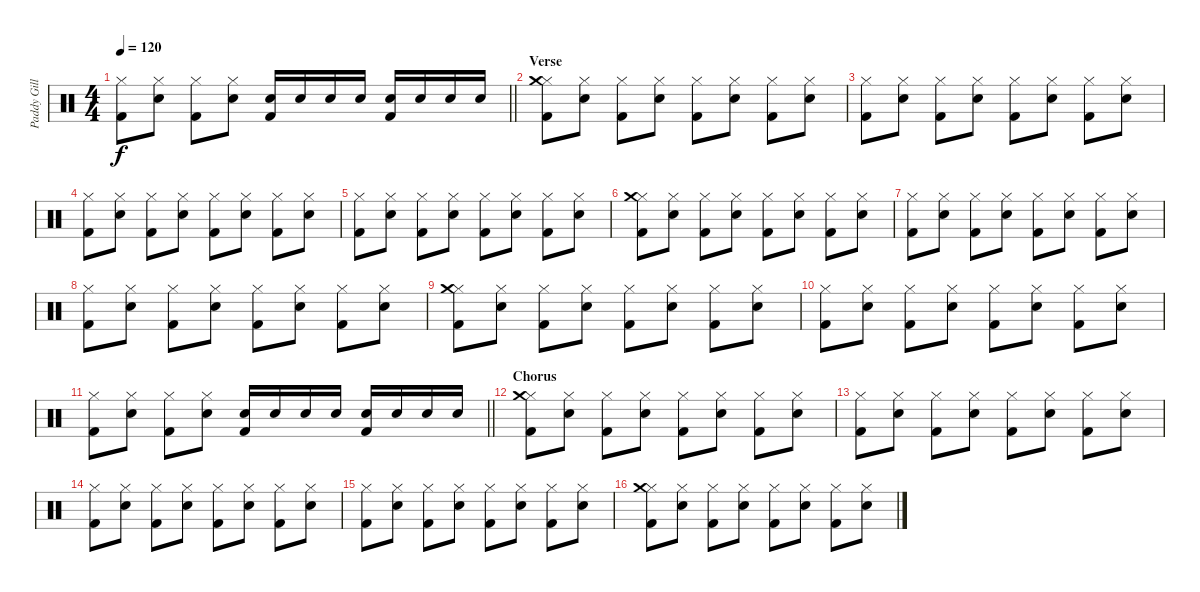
\track ("Paddy Gillespie" "Paddy Gill") {instrument percussion}
\staff {score}
\articulation defaults
\ts (4 4)
\tempo 120
\clef neutral
\barLineRight lightlight
\ks c
("Hi-Hat (closed)" "Kick (hit) 2").8{dy f} ("Hi-Hat (closed)" "Snare (hit) 2").8 ("Hi-Hat (closed)" "Kick (hit) 2").8 ("Hi-Hat (closed)" "Snare (hit) 2").8 ("Snare (hit) 2" "Kick (hit) 2").16 "Snare (hit) 2".16 "Snare (hit) 2".16 "Snare (hit) 2".16 ("Snare (hit) 2" "Kick (hit) 2").16 "Snare (hit) 2".16 "Snare (hit) 2".16 "Snare (hit) 2".16 |
\section ("" "Verse")
("Hi-Hat (closed)" "Kick (hit) 2" "Crash medium (hit)").8 ("Hi-Hat (closed)" "Snare (hit) 2").8 ("Hi-Hat (closed)" "Kick (hit) 2").8 ("Hi-Hat (closed)" "Snare (hit) 2").8 ("Hi-Hat (closed)" "Kick (hit) 2").8 ("Hi-Hat (closed)" "Snare (hit) 2").8 ("Hi-Hat (closed)" "Kick (hit) 2").8 ("Hi-Hat (closed)" "Snare (hit) 2").8 |
("Hi-Hat (closed)" "Kick (hit) 2").8 ("Hi-Hat (closed)" "Snare (hit) 2").8 ("Hi-Hat (closed)" "Kick (hit) 2").8 ("Hi-Hat (closed)" "Snare (hit) 2").8 ("Hi-Hat (closed)" "Kick (hit) 2").8 ("Hi-Hat (closed)" "Snare (hit) 2").8 ("Hi-Hat (closed)" "Kick (hit) 2").8 ("Hi-Hat (closed)" "Snare (hit) 2").8 |
("Hi-Hat (closed)" "Kick (hit) 2").8 ("Hi-Hat (closed)" "Snare (hit) 2").8 ("Hi-Hat (closed)" "Kick (hit) 2").8 ("Hi-Hat (closed)" "Snare (hit) 2").8 ("Hi-Hat (closed)" "Kick (hit) 2").8 ("Hi-Hat (closed)" "Snare (hit) 2").8 ("Hi-Hat (closed)" "Kick (hit) 2").8 ("Hi-Hat (closed)" "Snare (hit) 2").8 |
("Hi-Hat (closed)" "Kick (hit) 2").8 ("Hi-Hat (closed)" "Snare (hit) 2").8 ("Hi-Hat (closed)" "Kick (hit) 2").8 ("Hi-Hat (closed)" "Snare (hit) 2").8 ("Hi-Hat (closed)" "Kick (hit) 2").8 ("Hi-Hat (closed)" "Snare (hit) 2").8 ("Hi-Hat (closed)" "Kick (hit) 2").8 ("Hi-Hat (closed)" "Snare (hit) 2").8 |
("Hi-Hat (closed)" "Kick (hit) 2" "Crash medium (hit)").8 ("Hi-Hat (closed)" "Snare (hit) 2").8 ("Hi-Hat (closed)" "Kick (hit) 2").8 ("Hi-Hat (closed)" "Snare (hit) 2").8 ("Hi-Hat (closed)" "Kick (hit) 2").8 ("Hi-Hat (closed)" "Snare (hit) 2").8 ("Hi-Hat (closed)" "Kick (hit) 2").8 ("Hi-Hat (closed)" "Snare (hit) 2").8 |
("Hi-Hat (closed)" "Kick (hit) 2").8 ("Hi-Hat (closed)" "Snare (hit) 2").8 ("Hi-Hat (closed)" "Kick (hit) 2").8 ("Hi-Hat (closed)" "Snare (hit) 2").8 ("Hi-Hat (closed)" "Kick (hit) 2").8 ("Hi-Hat (closed)" "Snare (hit) 2").8 ("Hi-Hat (closed)" "Kick (hit) 2").8 ("Hi-Hat (closed)" "Snare (hit) 2").8 |
("Hi-Hat (closed)" "Kick (hit) 2").8 ("Hi-Hat (closed)" "Snare (hit) 2").8 ("Hi-Hat (closed)" "Kick (hit) 2").8 ("Hi-Hat (closed)" "Snare (hit) 2").8 ("Hi-Hat (closed)" "Kick (hit) 2").8 ("Hi-Hat (closed)" "Snare (hit) 2").8 ("Hi-Hat (closed)" "Kick (hit) 2").8 ("Hi-Hat (closed)" "Snare (hit) 2").8 |
("Hi-Hat (closed)" "Kick (hit) 2" "Crash medium (hit)").8 ("Hi-Hat (closed)" "Snare (hit) 2").8 ("Hi-Hat (closed)" "Kick (hit) 2").8 ("Hi-Hat (closed)" "Snare (hit) 2").8 ("Hi-Hat (closed)" "Kick (hit) 2").8 ("Hi-Hat (closed)" "Snare (hit) 2").8 ("Hi-Hat (closed)" "Kick (hit) 2").8 ("Hi-Hat (closed)" "Snare (hit) 2").8 |
("Hi-Hat (closed)" "Kick (hit) 2").8 ("Hi-Hat (closed)" "Snare (hit) 2").8 ("Hi-Hat (closed)" "Kick (hit) 2").8 ("Hi-Hat (closed)" "Snare (hit) 2").8 ("Hi-Hat (closed)" "Kick (hit) 2").8 ("Hi-Hat (closed)" "Snare (hit) 2").8 ("Hi-Hat (closed)" "Kick (hit) 2").8 ("Hi-Hat (closed)" "Snare (hit) 2").8 |
\barLineRight lightlight
("Hi-Hat (closed)" "Kick (hit) 2").8 ("Hi-Hat (closed)" "Snare (hit) 2").8 ("Hi-Hat (closed)" "Kick (hit) 2").8 ("Hi-Hat (closed)" "Snare (hit) 2").8 ("Snare (hit) 2" "Kick (hit) 2").16 "Snare (hit) 2".16 "Snare (hit) 2".16 "Snare (hit) 2".16 ("Snare (hit) 2" "Kick (hit) 2").16 "Snare (hit) 2".16 "Snare (hit) 2".16 "Snare (hit) 2".16 |
\section ("" "Chorus")
("Hi-Hat (closed)" "Kick (hit) 2" "Crash medium (hit)").8 ("Hi-Hat (closed)" "Snare (hit) 2").8 ("Hi-Hat (closed)" "Kick (hit) 2").8 ("Hi-Hat (closed)" "Snare (hit) 2").8 ("Hi-Hat (closed)" "Kick (hit) 2").8 ("Hi-Hat (closed)" "Snare (hit) 2").8 ("Hi-Hat (closed)" "Kick (hit) 2").8 ("Hi-Hat (closed)" "Snare (hit) 2").8 |
("Hi-Hat (closed)" "Kick (hit) 2").8 ("Hi-Hat (closed)" "Snare (hit) 2").8 ("Hi-Hat (closed)" "Kick (hit) 2").8 ("Hi-Hat (closed)" "Snare (hit) 2").8 ("Hi-Hat (closed)" "Kick (hit) 2").8 ("Hi-Hat (closed)" "Snare (hit) 2").8 ("Hi-Hat (closed)" "Kick (hit) 2").8 ("Hi-Hat (closed)" "Snare (hit) 2").8 |
("Hi-Hat (closed)" "Kick (hit) 2").8 ("Hi-Hat (closed)" "Snare (hit) 2").8 ("Hi-Hat (closed)" "Kick (hit) 2").8 ("Hi-Hat (closed)" "Snare (hit) 2").8 ("Hi-Hat (closed)" "Kick (hit) 2").8 ("Hi-Hat (closed)" "Snare (hit) 2").8 ("Hi-Hat (closed)" "Kick (hit) 2").8 ("Hi-Hat (closed)" "Snare (hit) 2").8 |
("Hi-Hat (closed)" "Kick (hit) 2").8 ("Hi-Hat (closed)" "Snare (hit) 2").8 ("Hi-Hat (closed)" "Kick (hit) 2").8 ("Hi-Hat (closed)" "Snare (hit) 2").8 ("Hi-Hat (closed)" "Kick (hit) 2").8 ("Hi-Hat (closed)" "Snare (hit) 2").8 ("Hi-Hat (closed)" "Kick (hit) 2").8 ("Hi-Hat (closed)" "Snare (hit) 2").8 |
("Hi-Hat (closed)" "Kick (hit) 2" "Crash medium (hit)").8 ("Hi-Hat (closed)" "Snare (hit) 2").8 ("Hi-Hat (closed)" "Kick (hit) 2").8 ("Hi-Hat (closed)" "Snare (hit) 2").8 ("Hi-Hat (closed)" "Kick (hit) 2").8 ("Hi-Hat (closed)" "Snare (hit) 2").8 ("Hi-Hat (closed)" "Kick (hit) 2").8 ("Hi-Hat (closed)" "Snare (hit) 2").8
